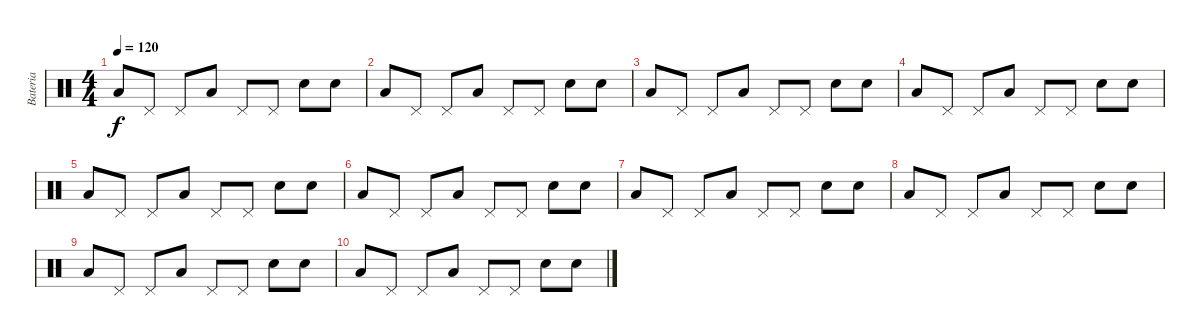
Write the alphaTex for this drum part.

\track ("Bateria" "Bateria") {instrument percussion}
\staff {score}
\articulation defaults
\ts (4 4)
\tempo 120
\clef neutral
\ks c "Low Tom (hit)".8{dy f} "Pedal Hi-Hat (hit)".8 "Pedal Hi-Hat (hit)".8 "Low Tom (hit)".8 "Pedal Hi-Hat (hit)".8 "Pedal Hi-Hat (hit)".8 "Snare (hit) 2".8 "Snare (hit) 2".8
|
"Low Tom (hit)".8 "Pedal Hi-Hat (hit)".8 "Pedal Hi-Hat (hit)".8 "Low Tom (hit)".8 "Pedal Hi-Hat (hit)".8 "Pedal Hi-Hat (hit)".8 "Snare (hit) 2".8 "Snare (hit) 2".8 |
"Low Tom (hit)".8 "Pedal Hi-Hat (hit)".8 "Pedal Hi-Hat (hit)".8 "Low Tom (hit)".8 "Pedal Hi-Hat (hit)".8 "Pedal Hi-Hat (hit)".8 "Snare (hit) 2".8 "Snare (hit) 2".8 |
"Low Tom (hit)".8 "Pedal Hi-Hat (hit)".8 "Pedal Hi-Hat (hit)".8 "Low Tom (hit)".8 "Pedal Hi-Hat (hit)".8 "Pedal Hi-Hat (hit)".8 "Snare (hit) 2".8 "Snare (hit) 2".8 |
"Low Tom (hit)".8 "Pedal Hi-Hat (hit)".8 "Pedal Hi-Hat (hit)".8 "Low Tom (hit)".8 "Pedal Hi-Hat (hit)".8 "Pedal Hi-Hat (hit)".8 "Snare (hit) 2".8 "Snare (hit) 2".8 |
"Low Tom (hit)".8 "Pedal Hi-Hat (hit)".8 "Pedal Hi-Hat (hit)".8 "Low Tom (hit)".8 "Pedal Hi-Hat (hit)".8 "Pedal Hi-Hat (hit)".8 "Snare (hit) 2".8 "Snare (hit) 2".8 |
"Low Tom (hit)".8 "Pedal Hi-Hat (hit)".8 "Pedal Hi-Hat (hit)".8 "Low Tom (hit)".8 "Pedal Hi-Hat (hit)".8 "Pedal Hi-Hat (hit)".8 "Snare (hit) 2".8 "Snare (hit) 2".8 |
"Low Tom (hit)".8 "Pedal Hi-Hat (hit)".8 "Pedal Hi-Hat (hit)".8 "Low Tom (hit)".8 "Pedal Hi-Hat (hit)".8 "Pedal Hi-Hat (hit)".8 "Snare (hit) 2".8 "Snare (hit) 2".8 |
"Low Tom (hit)".8 "Pedal Hi-Hat (hit)".8 "Pedal Hi-Hat (hit)".8 "Low Tom (hit)".8 "Pedal Hi-Hat (hit)".8 "Pedal Hi-Hat (hit)".8 "Snare (hit) 2".8 "Snare (hit) 2".8 |
"Low Tom (hit)".8 "Pedal Hi-Hat (hit)".8 "Pedal Hi-Hat (hit)".8 "Low Tom (hit)".8 "Pedal Hi-Hat (hit)".8 "Pedal Hi-Hat (hit)".8 "Snare (hit) 2".8 "Snare (hit) 2".8
